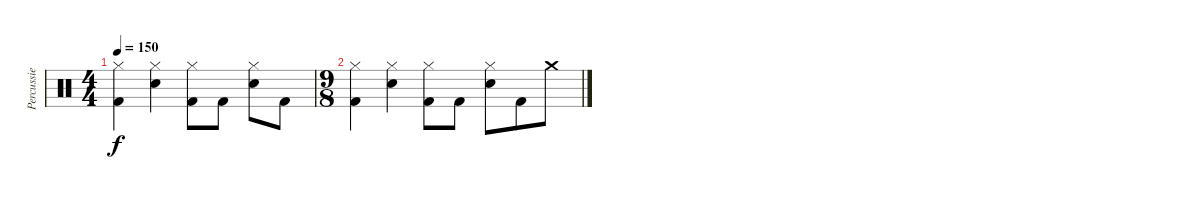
\track ("Percussie" "Percussie") {instrument percussion}
\staff {score}
\articulation defaults
\ts (4 4)
\tempo 150
\clef neutral
\ks c
("Hi-Hat (closed)" "Kick (hit) 2").4{dy f} ("Hi-Hat (closed)" "Snare (hit) 2").4 ("Hi-Hat (closed)" "Kick (hit) 2").8 "Kick (hit) 2".8 ("Hi-Hat (closed)" "Snare (hit) 2").8 "Kick (hit) 2".8 |
\ts (9 8)
("Hi-Hat (closed)" "Kick (hit) 2").4 ("Hi-Hat (closed)" "Snare (hit) 2").4 ("Hi-Hat (closed)" "Kick (hit) 2").8 "Kick (hit) 2".8 ("Hi-Hat (closed)" "Snare (hit) 2").8 "Kick (hit) 2".8 "Crash medium (hit)".8
